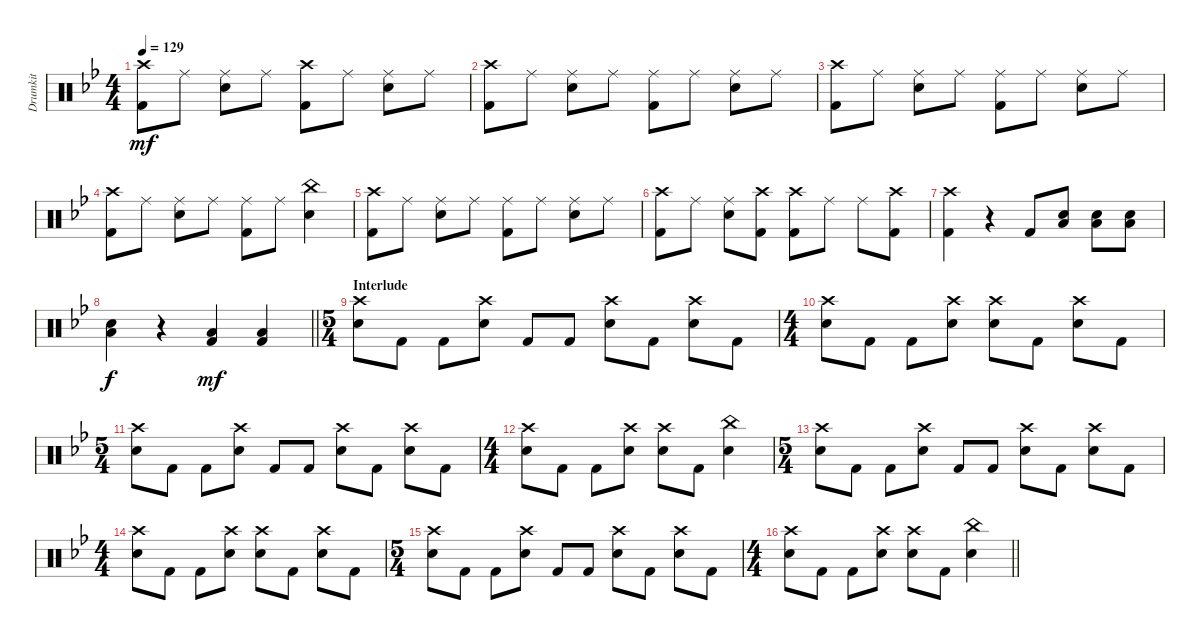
\track ("Drumkit" "Drumkit") {instrument percussion}
\staff {score}
\articulation defaults
\ts (4 4)
\tempo 129
\clef neutral
\ks bb
("Crash high (hit)" "Kick (hit) 2").8{dy mf} "Ride (middle)".8 ("Ride (middle)" "Snare (hit) 2").8 "Ride (middle)".8 ("Crash high (hit)" "Kick (hit) 2").8 "Ride (middle)".8 ("Ride (middle)" "Snare (hit) 2").8 "Ride (middle)".8 |
("Crash high (hit)" "Kick (hit) 2").8 "Ride (middle)".8 ("Ride (middle)" "Snare (hit) 2").8 "Ride (middle)".8 ("Ride (middle)" "Kick (hit) 2").8 "Ride (middle)".8 ("Ride (middle)" "Snare (hit) 2").8 "Ride (middle)".8 |
("Crash high (hit)" "Kick (hit) 2").8 "Ride (middle)".8 ("Ride (middle)" "Snare (hit) 2").8 "Ride (middle)".8 ("Ride (middle)" "Kick (hit) 2").8 "Ride (middle)".8 ("Ride (middle)" "Snare (hit) 2").8 "Ride (middle)".8 |
("Crash high (hit)" "Kick (hit) 2").8 "Ride (middle)".8 ("Ride (middle)" "Snare (hit) 2").8 "Ride (middle)".8 ("Ride (middle)" "Kick (hit) 2").8 "Ride (middle)".8 ("Snare (hit) 2" "China (hit)").4 |
("Crash high (hit)" "Kick (hit) 2").8 "Ride (middle)".8 ("Ride (middle)" "Snare (hit) 2").8 "Ride (middle)".8 ("Ride (middle)" "Kick (hit) 2").8 "Ride (middle)".8 ("Ride (middle)" "Snare (hit) 2").8 "Ride (middle)".8 |
("Crash high (hit)" "Kick (hit) 2").8 "Ride (middle)".8 ("Ride (middle)" "Snare (hit) 2").8 ("Crash high (hit)" "Kick (hit) 2").8 ("Crash high (hit)" "Kick (hit) 2").8 "Ride (middle)".8 "Ride (middle)".8 ("Crash high (hit)" "Kick (hit) 2").8 |
("Crash high (hit)" "Kick (hit) 2").4 r.4 "Kick (hit) 2".8 ("Low Tom (hit)" "Snare (hit) 2").8 ("Low Tom (hit)" "Snare (hit) 2").8 ("Low Tom (hit)" "Snare (hit) 2").8 |
\barLineRight lightlight
("Low Tom (hit)" "Snare (hit) 2").4{dy f} r.4 ("Kick (hit) 2" "Low Tom (hit)").4{dy mf} ("Kick (hit) 2" "Low Tom (hit)").4 |
\ts (5 4)
\section ("" "Interlude")
("Crash high (hit)" "Snare (hit) 2").8 "Kick (hit) 2".8 "Kick (hit) 2".8 ("Crash high (hit)" "Snare (hit) 2").8 "Kick (hit) 2".8 "Kick (hit) 2".8 ("Crash high (hit)" "Snare (hit) 2").8 "Kick (hit) 2".8 ("Crash high (hit)" "Snare (hit) 2").8 "Kick (hit) 2".8 |
\ts (4 4)
("Crash high (hit)" "Snare (hit) 2").8 "Kick (hit) 2".8 "Kick (hit) 2".8 ("Crash high (hit)" "Snare (hit) 2").8 ("Crash high (hit)" "Snare (hit) 2").8 "Kick (hit) 2".8 ("Crash high (hit)" "Snare (hit) 2").8 "Kick (hit) 2".8 |
\ts (5 4)
("Crash high (hit)" "Snare (hit) 2").8 "Kick (hit) 2".8 "Kick (hit) 2".8 ("Crash high (hit)" "Snare (hit) 2").8 "Kick (hit) 2".8 "Kick (hit) 2".8 ("Crash high (hit)" "Snare (hit) 2").8 "Kick (hit) 2".8 ("Crash high (hit)" "Snare (hit) 2").8 "Kick (hit) 2".8 |
\ts (4 4)
("Crash high (hit)" "Snare (hit) 2").8 "Kick (hit) 2".8 "Kick (hit) 2".8 ("Crash high (hit)" "Snare (hit) 2").8 ("Crash high (hit)" "Snare (hit) 2").8 "Kick (hit) 2".8 ("Snare (hit) 2" "China (hit)").4 |
\ts (5 4)
("Crash high (hit)" "Snare (hit) 2").8 "Kick (hit) 2".8 "Kick (hit) 2".8 ("Crash high (hit)" "Snare (hit) 2").8 "Kick (hit) 2".8 "Kick (hit) 2".8 ("Crash high (hit)" "Snare (hit) 2").8 "Kick (hit) 2".8 ("Crash high (hit)" "Snare (hit) 2").8 "Kick (hit) 2".8 |
\ts (4 4)
("Crash high (hit)" "Snare (hit) 2").8 "Kick (hit) 2".8 "Kick (hit) 2".8 ("Crash high (hit)" "Snare (hit) 2").8 ("Crash high (hit)" "Snare (hit) 2").8 "Kick (hit) 2".8 ("Crash high (hit)" "Snare (hit) 2").8 "Kick (hit) 2".8 |
\ts (5 4)
("Crash high (hit)" "Snare (hit) 2").8 "Kick (hit) 2".8 "Kick (hit) 2".8 ("Crash high (hit)" "Snare (hit) 2").8 "Kick (hit) 2".8 "Kick (hit) 2".8 ("Crash high (hit)" "Snare (hit) 2").8 "Kick (hit) 2".8 ("Crash high (hit)" "Snare (hit) 2").8 "Kick (hit) 2".8 |
\ts (4 4)
\barLineRight lightlight
("Crash high (hit)" "Snare (hit) 2").8 "Kick (hit) 2".8 "Kick (hit) 2".8 ("Crash high (hit)" "Snare (hit) 2").8 ("Crash high (hit)" "Snare (hit) 2").8 "Kick (hit) 2".8 ("Snare (hit) 2" "China (hit)").4
